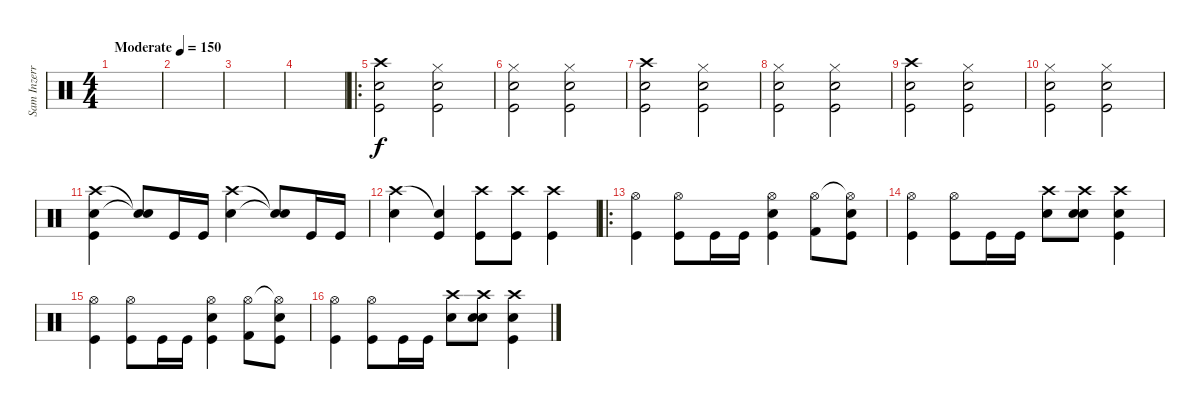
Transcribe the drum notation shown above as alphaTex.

\track ("Sam Inzerra(Percusión)" "Sam Inzerr") {instrument percussion}
\staff {score}
\articulation defaults
\ts (4 4)
\tempo (150 "Moderate")
\clef neutral
\ks c
|
|
|
|
\ro
("Crash high (hit)" "Electric Snare (hit)" "Kick (hit)").2 ("Hi-Hat (closed)" "Electric Snare (hit)" "Kick (hit)").2 |
("Hi-Hat (closed)" "Electric Snare (hit)" "Kick (hit)").2 ("Hi-Hat (closed)" "Electric Snare (hit)" "Kick (hit)").2 |
("Crash high (hit)" "Electric Snare (hit)" "Kick (hit)").2 ("Hi-Hat (closed)" "Electric Snare (hit)" "Kick (hit)").2 |
("Hi-Hat (closed)" "Electric Snare (hit)" "Kick (hit)").2 ("Hi-Hat (closed)" "Electric Snare (hit)" "Kick (hit)").2 |
("Crash high (hit)" "Electric Snare (hit)" "Kick (hit)").2 ("Hi-Hat (closed)" "Electric Snare (hit)" "Kick (hit)").2 |
("Hi-Hat (closed)" "Electric Snare (hit)" "Kick (hit)").2 ("Hi-Hat (closed)" "Electric Snare (hit)" "Kick (hit)").2 |
("Crash high (hit)" "Electric Snare (hit)" "Kick (hit)").4 ("Snare (hit)"{t} "Snare (hit)"{t}).8 "Kick (hit)".16 "Kick (hit)".16 ("Crash high (hit)" "Electric Snare (hit)").4 ("Snare (hit)"{t} "Snare (hit)"{t}).8 "Kick (hit)".16 "Kick (hit)".16 |
("Crash high (hit)" "Electric Snare (hit)").4 ("Snare (hit) 2"{t} "Kick (hit)").4 ("Crash high (hit)" "Kick (hit)").8 ("Crash high (hit)" "Kick (hit)").8 ("Crash high (hit)" "Kick (hit)").4 |
\ro
("Hi-Hat (open)" "Kick (hit)").4 ("Hi-Hat (open)" "Kick (hit)").8 "Kick (hit)".16 "Kick (hit)".16 ("Hi-Hat (open)" "Electric Snare (hit)" "Kick (hit)").4 ("Hi-Hat (open)" "Kick (hit) 2").8 ("Hi-Hat (open)"{t} "Electric Snare (hit)" "Kick (hit)").8 |
("Hi-Hat (open)" "Kick (hit)").4 ("Hi-Hat (open)" "Kick (hit)").8 "Kick (hit)".16 "Kick (hit)".16 ("Crash high (hit)" "Electric Snare (hit)").8 ("Crash high (hit)" "Electric Snare (hit)" "Electric Snare (hit)").8 ("Crash high (hit)" "Electric Snare (hit)" "Kick (hit)").4 |
("Hi-Hat (open)" "Kick (hit)").4 ("Hi-Hat (open)" "Kick (hit)").8 "Kick (hit)".16 "Kick (hit)".16 ("Hi-Hat (open)" "Electric Snare (hit)" "Kick (hit)").4 ("Hi-Hat (open)" "Kick (hit) 2").8 ("Hi-Hat (open)"{t} "Electric Snare (hit)" "Kick (hit)").8 |
("Hi-Hat (open)" "Kick (hit)").4 ("Hi-Hat (open)" "Kick (hit)").8 "Kick (hit)".16 "Kick (hit)".16 ("Crash high (hit)" "Electric Snare (hit)").8 ("Crash high (hit)" "Electric Snare (hit)" "Electric Snare (hit)").8 ("Crash high (hit)" "Electric Snare (hit)" "Kick (hit)").4
